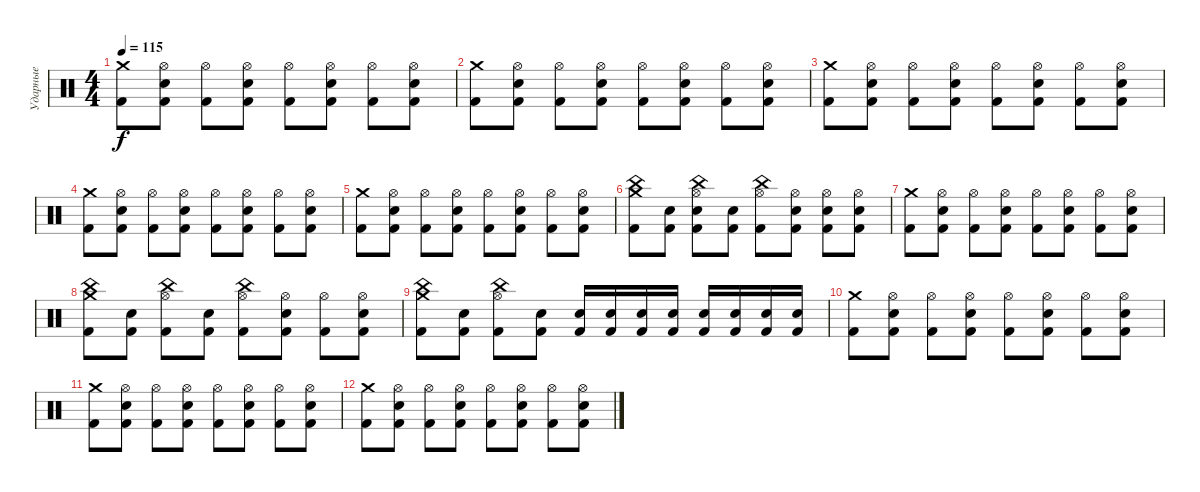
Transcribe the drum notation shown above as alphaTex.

\track ("Ударные" "Ударные") {instrument percussion}
\staff {score}
\articulation defaults
\ts (4 4)
\tempo 115
\clef neutral
\ks c
("Kick (hit) 2" "Crash medium (hit)").8{dy f} ("Kick (hit) 2" "Snare (hit) 2" "Hi-Hat (open)").8 ("Kick (hit) 2" "Hi-Hat (open)").8 ("Kick (hit) 2" "Snare (hit) 2" "Hi-Hat (open)").8 ("Kick (hit) 2" "Hi-Hat (open)").8 ("Kick (hit) 2" "Snare (hit) 2" "Hi-Hat (open)").8 ("Kick (hit) 2" "Hi-Hat (open)").8 ("Kick (hit) 2" "Snare (hit) 2" "Hi-Hat (open)").8 |
("Kick (hit) 2" "Crash medium (hit)").8 ("Kick (hit) 2" "Snare (hit) 2" "Hi-Hat (open)").8 ("Kick (hit) 2" "Hi-Hat (open)").8 ("Kick (hit) 2" "Snare (hit) 2" "Hi-Hat (open)").8 ("Kick (hit) 2" "Hi-Hat (open)").8 ("Kick (hit) 2" "Snare (hit) 2" "Hi-Hat (open)").8 ("Kick (hit) 2" "Hi-Hat (open)").8 ("Kick (hit) 2" "Snare (hit) 2" "Hi-Hat (open)").8 |
("Kick (hit) 2" "Crash medium (hit)").8 ("Kick (hit) 2" "Snare (hit) 2" "Hi-Hat (open)").8 ("Kick (hit) 2" "Hi-Hat (open)").8 ("Kick (hit) 2" "Snare (hit) 2" "Hi-Hat (open)").8 ("Kick (hit) 2" "Hi-Hat (open)").8 ("Kick (hit) 2" "Snare (hit) 2" "Hi-Hat (open)").8 ("Kick (hit) 2" "Hi-Hat (open)").8 ("Kick (hit) 2" "Snare (hit) 2" "Hi-Hat (open)").8 |
("Kick (hit) 2" "Crash medium (hit)").8 ("Kick (hit) 2" "Snare (hit) 2" "Hi-Hat (open)").8 ("Kick (hit) 2" "Hi-Hat (open)").8 ("Kick (hit) 2" "Snare (hit) 2" "Hi-Hat (open)").8 ("Kick (hit) 2" "Hi-Hat (open)").8 ("Kick (hit) 2" "Snare (hit) 2" "Hi-Hat (open)").8 ("Kick (hit) 2" "Hi-Hat (open)").8 ("Kick (hit) 2" "Snare (hit) 2" "Hi-Hat (open)").8 |
("Kick (hit) 2" "Crash medium (hit)").8 ("Kick (hit) 2" "Snare (hit) 2" "Hi-Hat (open)").8 ("Kick (hit) 2" "Hi-Hat (open)").8 ("Kick (hit) 2" "Snare (hit) 2" "Hi-Hat (open)").8 ("Kick (hit) 2" "Hi-Hat (open)").8 ("Kick (hit) 2" "Snare (hit) 2" "Hi-Hat (open)").8 ("Kick (hit) 2" "Hi-Hat (open)").8 ("Kick (hit) 2" "Snare (hit) 2" "Hi-Hat (open)").8 |
("Kick (hit) 2" "Crash medium (hit)" "China (hit)").8 ("Kick (hit) 2" "Snare (hit) 2").8 ("Kick (hit) 2" "Snare (hit) 2" "Hi-Hat (open)" "China (hit)").8 ("Kick (hit) 2" "Snare (hit) 2").8 ("Kick (hit) 2" "Hi-Hat (open)" "China (hit)").8 ("Kick (hit) 2" "Snare (hit) 2" "Hi-Hat (open)").8 ("Kick (hit) 2" "Snare (hit) 2" "Hi-Hat (open)").8 ("Kick (hit) 2" "Snare (hit) 2" "Hi-Hat (open)").8 |
("Kick (hit) 2" "Crash medium (hit)").8 ("Kick (hit) 2" "Snare (hit) 2" "Hi-Hat (open)").8 ("Kick (hit) 2" "Hi-Hat (open)").8 ("Kick (hit) 2" "Snare (hit) 2" "Hi-Hat (open)").8 ("Kick (hit) 2" "Hi-Hat (open)").8 ("Kick (hit) 2" "Snare (hit) 2" "Hi-Hat (open)").8 ("Kick (hit) 2" "Hi-Hat (open)").8 ("Kick (hit) 2" "Snare (hit) 2" "Hi-Hat (open)").8 |
("Kick (hit) 2" "Crash medium (hit)" "China (hit)").8 ("Kick (hit) 2" "Snare (hit) 2").8 ("Kick (hit) 2" "Hi-Hat (open)" "China (hit)").8 ("Kick (hit) 2" "Snare (hit) 2").8 ("Kick (hit) 2" "Hi-Hat (open)" "China (hit)").8 ("Kick (hit) 2" "Snare (hit) 2" "Hi-Hat (open)").8 ("Kick (hit) 2" "Hi-Hat (open)").8 ("Kick (hit) 2" "Snare (hit) 2" "Hi-Hat (open)").8 |
("Kick (hit) 2" "Crash medium (hit)" "China (hit)").8 ("Kick (hit) 2" "Snare (hit) 2").8 ("Kick (hit) 2" "Hi-Hat (open)" "China (hit)").8 ("Kick (hit) 2" "Snare (hit) 2").8 ("Kick (hit) 2" "Snare (hit) 2").16 ("Kick (hit) 2" "Snare (hit) 2").16 ("Kick (hit) 2" "Snare (hit) 2").16 ("Kick (hit) 2" "Snare (hit) 2").16 ("Kick (hit) 2" "Snare (hit) 2").16 ("Kick (hit) 2" "Snare (hit) 2").16 ("Kick (hit) 2" "Snare (hit) 2").16 ("Kick (hit) 2" "Snare (hit) 2").16 |
("Kick (hit) 2" "Crash medium (hit)").8 ("Kick (hit) 2" "Snare (hit) 2" "Hi-Hat (open)").8 ("Kick (hit) 2" "Hi-Hat (open)").8 ("Kick (hit) 2" "Snare (hit) 2" "Hi-Hat (open)").8 ("Kick (hit) 2" "Hi-Hat (open)").8 ("Kick (hit) 2" "Snare (hit) 2" "Hi-Hat (open)").8 ("Kick (hit) 2" "Hi-Hat (open)").8 ("Kick (hit) 2" "Snare (hit) 2" "Hi-Hat (open)").8 |
("Kick (hit) 2" "Crash medium (hit)").8 ("Kick (hit) 2" "Snare (hit) 2" "Hi-Hat (open)").8 ("Kick (hit) 2" "Hi-Hat (open)").8 ("Kick (hit) 2" "Snare (hit) 2" "Hi-Hat (open)").8 ("Kick (hit) 2" "Hi-Hat (open)").8 ("Kick (hit) 2" "Snare (hit) 2" "Hi-Hat (open)").8 ("Kick (hit) 2" "Hi-Hat (open)").8 ("Kick (hit) 2" "Snare (hit) 2" "Hi-Hat (open)").8 |
("Kick (hit) 2" "Crash medium (hit)").8 ("Kick (hit) 2" "Snare (hit) 2" "Hi-Hat (open)").8 ("Kick (hit) 2" "Hi-Hat (open)").8 ("Kick (hit) 2" "Snare (hit) 2" "Hi-Hat (open)").8 ("Kick (hit) 2" "Hi-Hat (open)").8 ("Kick (hit) 2" "Snare (hit) 2" "Hi-Hat (open)").8 ("Kick (hit) 2" "Hi-Hat (open)").8 ("Kick (hit) 2" "Snare (hit) 2" "Hi-Hat (open)").8
